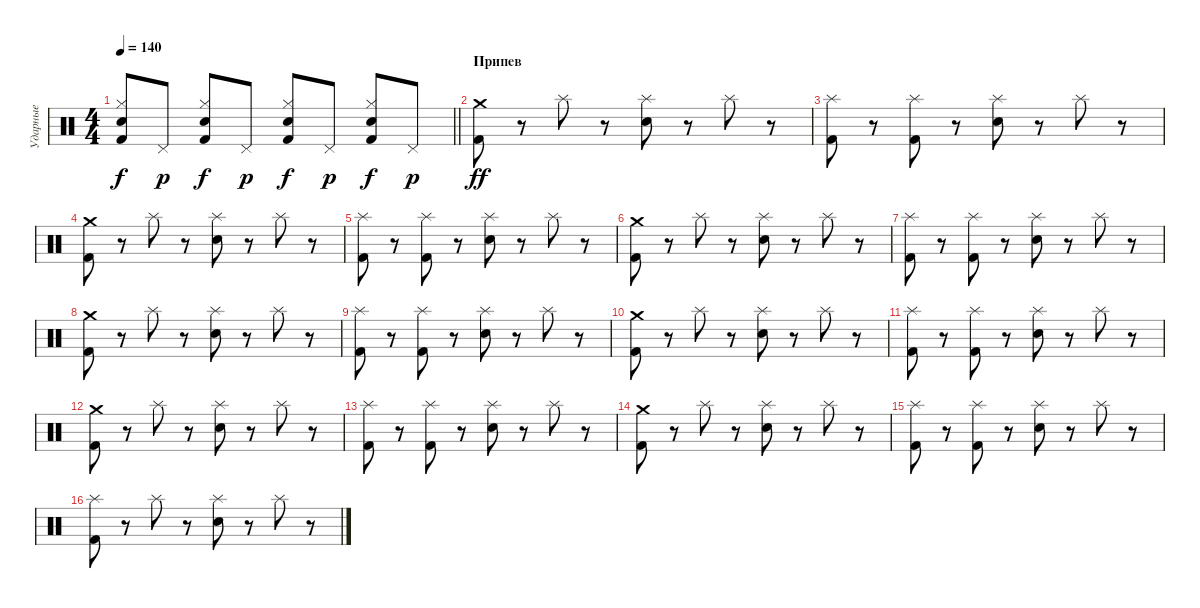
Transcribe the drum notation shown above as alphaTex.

\track ("Ударные" "Ударные") {instrument percussion}
\staff {score}
\articulation defaults
\ts (4 4)
\tempo 140
\clef neutral
\barLineRight lightlight
\ks c
("Snare (hit) 2" "Hi-Hat (closed)" "Kick (hit) 2").8{dy f} "Pedal Hi-Hat (hit)".8{dy p} ("Snare (hit) 2" "Hi-Hat (closed)" "Kick (hit) 2").8{dy f} "Pedal Hi-Hat (hit)".8{dy p} ("Snare (hit) 2" "Hi-Hat (closed)" "Kick (hit) 2").8{dy f} "Pedal Hi-Hat (hit)".8{dy p} ("Snare (hit) 2" "Hi-Hat (closed)" "Kick (hit) 2").8{dy f} "Pedal Hi-Hat (hit)".8{dy p} |
\section ("" "Припев")
("Kick (hit) 2" "Crash medium (hit)").8{dy ff} r.8 "Splash (hit)".8 r.8 ("Snare (hit) 2" "Splash (hit)").8 r.8 "Splash (hit)".8 r.8 |
("Kick (hit) 2" "Splash (hit)").8 r.8 ("Kick (hit) 2" "Splash (hit)").8 r.8 ("Snare (hit) 2" "Splash (hit)").8 r.8 "Splash (hit)".8 r.8 |
("Kick (hit) 2" "Crash medium (hit)").8 r.8 "Splash (hit)".8 r.8 ("Snare (hit) 2" "Splash (hit)").8 r.8 "Splash (hit)".8 r.8 |
("Kick (hit) 2" "Splash (hit)").8 r.8 ("Kick (hit) 2" "Splash (hit)").8 r.8 ("Snare (hit) 2" "Splash (hit)").8 r.8 "Splash (hit)".8 r.8 |
("Kick (hit) 2" "Crash medium (hit)").8 r.8 "Splash (hit)".8 r.8 ("Snare (hit) 2" "Splash (hit)").8 r.8 "Splash (hit)".8 r.8 |
("Kick (hit) 2" "Splash (hit)").8 r.8 ("Kick (hit) 2" "Splash (hit)").8 r.8 ("Snare (hit) 2" "Splash (hit)").8 r.8 "Splash (hit)".8 r.8 |
("Kick (hit) 2" "Crash medium (hit)").8 r.8 "Splash (hit)".8 r.8 ("Snare (hit) 2" "Splash (hit)").8 r.8 "Splash (hit)".8 r.8 |
("Kick (hit) 2" "Splash (hit)").8 r.8 ("Kick (hit) 2" "Splash (hit)").8 r.8 ("Snare (hit) 2" "Splash (hit)").8 r.8 "Splash (hit)".8 r.8 |
("Kick (hit) 2" "Crash medium (hit)").8 r.8 "Splash (hit)".8 r.8 ("Snare (hit) 2" "Splash (hit)").8 r.8 "Splash (hit)".8 r.8 |
("Kick (hit) 2" "Splash (hit)").8 r.8 ("Kick (hit) 2" "Splash (hit)").8 r.8 ("Snare (hit) 2" "Splash (hit)").8 r.8 "Splash (hit)".8 r.8 |
("Kick (hit) 2" "Crash medium (hit)").8 r.8 "Splash (hit)".8 r.8 ("Snare (hit) 2" "Splash (hit)").8 r.8 "Splash (hit)".8 r.8 |
("Kick (hit) 2" "Splash (hit)").8 r.8 ("Kick (hit) 2" "Splash (hit)").8 r.8 ("Snare (hit) 2" "Splash (hit)").8 r.8 "Splash (hit)".8 r.8 |
("Kick (hit) 2" "Crash medium (hit)").8 r.8 "Splash (hit)".8 r.8 ("Snare (hit) 2" "Splash (hit)").8 r.8 "Splash (hit)".8 r.8 |
("Kick (hit) 2" "Splash (hit)").8 r.8 ("Kick (hit) 2" "Splash (hit)").8 r.8 ("Snare (hit) 2" "Splash (hit)").8 r.8 "Splash (hit)".8 r.8 |
("Kick (hit) 2" "Splash (hit)").8 r.8 "Splash (hit)".8 r.8 ("Snare (hit) 2" "Splash (hit)").8 r.8 "Splash (hit)".8 r.8
